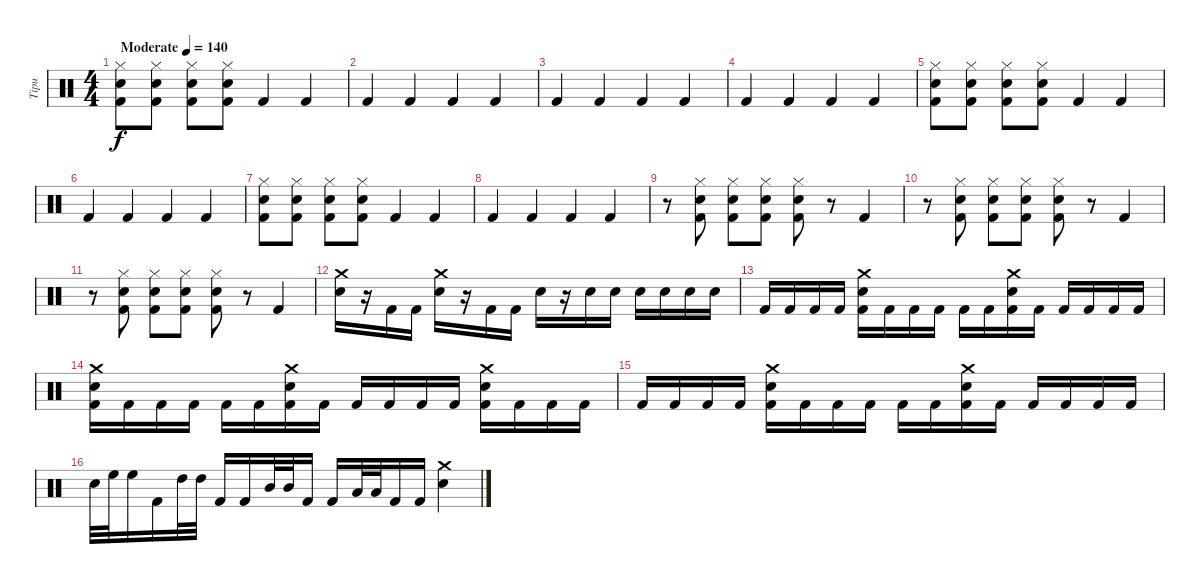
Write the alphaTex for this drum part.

\track ("Tipu" "Tipu") {instrument percussion}
\staff {score}
\articulation defaults
\ts (4 4)
\tempo (140 "Moderate")
\clef neutral
\ks c
("Kick (hit) 2" "Electric Snare (hit)" "Hi-Hat (closed)").8{dy f} ("Kick (hit) 2" "Electric Snare (hit)" "Hi-Hat (closed)").8 ("Kick (hit) 2" "Electric Snare (hit)" "Hi-Hat (closed)").8 ("Kick (hit) 2" "Electric Snare (hit)" "Hi-Hat (closed)").8 "Kick (hit) 2".4 "Kick (hit) 2".4 |
"Kick (hit) 2".4 "Kick (hit) 2".4 "Kick (hit) 2".4 "Kick (hit) 2".4 |
"Kick (hit) 2".4 "Kick (hit) 2".4 "Kick (hit) 2".4 "Kick (hit) 2".4 |
"Kick (hit) 2".4 "Kick (hit) 2".4 "Kick (hit) 2".4 "Kick (hit) 2".4 |
("Kick (hit) 2" "Electric Snare (hit)" "Hi-Hat (closed)").8 ("Kick (hit) 2" "Electric Snare (hit)" "Hi-Hat (closed)").8 ("Kick (hit) 2" "Electric Snare (hit)" "Hi-Hat (closed)").8 ("Kick (hit) 2" "Electric Snare (hit)" "Hi-Hat (closed)").8 "Kick (hit) 2".4 "Kick (hit) 2".4 |
"Kick (hit) 2".4 "Kick (hit) 2".4 "Kick (hit) 2".4 "Kick (hit) 2".4 |
("Kick (hit) 2" "Electric Snare (hit)" "Hi-Hat (closed)").8 ("Kick (hit) 2" "Electric Snare (hit)" "Hi-Hat (closed)").8 ("Kick (hit) 2" "Electric Snare (hit)" "Hi-Hat (closed)").8 ("Kick (hit) 2" "Electric Snare (hit)" "Hi-Hat (closed)").8 "Kick (hit) 2".4 "Kick (hit) 2".4 |
"Kick (hit) 2".4 "Kick (hit) 2".4 "Kick (hit) 2".4 "Kick (hit) 2".4 |
r.8 ("Kick (hit) 2" "Electric Snare (hit)" "Hi-Hat (closed)").8 ("Kick (hit) 2" "Electric Snare (hit)" "Hi-Hat (closed)").8 ("Kick (hit) 2" "Electric Snare (hit)" "Hi-Hat (closed)").8 ("Kick (hit) 2" "Electric Snare (hit)" "Hi-Hat (closed)").8 r.8 "Kick (hit) 2".4 |
r.8 ("Kick (hit) 2" "Electric Snare (hit)" "Hi-Hat (closed)").8 ("Kick (hit) 2" "Electric Snare (hit)" "Hi-Hat (closed)").8 ("Kick (hit) 2" "Electric Snare (hit)" "Hi-Hat (closed)").8 ("Kick (hit) 2" "Electric Snare (hit)" "Hi-Hat (closed)").8 r.8 "Kick (hit) 2".4 |
r.8 ("Kick (hit) 2" "Electric Snare (hit)" "Hi-Hat (closed)").8 ("Kick (hit) 2" "Electric Snare (hit)" "Hi-Hat (closed)").8 ("Kick (hit) 2" "Electric Snare (hit)" "Hi-Hat (closed)").8 ("Kick (hit) 2" "Electric Snare (hit)" "Hi-Hat (closed)").8 r.8 "Kick (hit) 2".4 |
("Snare (hit) 2" "Crash medium (hit)").16 r.16 "Kick (hit) 2".16 "Kick (hit) 2".16 ("Snare (hit) 2" "Crash medium (hit)").16 r.16 "Kick (hit) 2".16 "Kick (hit) 2".16 "Snare (hit) 2".16 r.16 "Snare (hit) 2".16 "Snare (hit) 2".16 "Snare (hit) 2".16 "Snare (hit) 2".16 "Snare (hit) 2".16 "Snare (hit) 2".16 |
"Kick (hit) 2".16 "Kick (hit) 2".16 "Kick (hit) 2".16 "Kick (hit) 2".16 ("Electric Snare (hit)" "Crash medium (hit)" "Kick (hit) 2").16 "Kick (hit) 2".16 "Kick (hit) 2".16 "Kick (hit) 2".16 "Kick (hit) 2".16 "Kick (hit) 2".16 ("Electric Snare (hit)" "Crash medium (hit)" "Kick (hit) 2").16 "Kick (hit) 2".16 "Kick (hit) 2".16 "Kick (hit) 2".16 "Kick (hit) 2".16 "Kick (hit) 2".16 |
("Electric Snare (hit)" "Crash medium (hit)" "Kick (hit) 2").16 "Kick (hit) 2".16 "Kick (hit) 2".16 "Kick (hit) 2".16 "Kick (hit) 2".16 "Kick (hit) 2".16 ("Electric Snare (hit)" "Crash medium (hit)" "Kick (hit) 2").16 "Kick (hit) 2".16 "Kick (hit) 2".16 "Kick (hit) 2".16 "Kick (hit) 2".16 "Kick (hit) 2".16 ("Electric Snare (hit)" "Crash medium (hit)" "Kick (hit) 2").16 "Kick (hit) 2".16 "Kick (hit) 2".16 "Kick (hit) 2".16 |
"Kick (hit) 2".16 "Kick (hit) 2".16 "Kick (hit) 2".16 "Kick (hit) 2".16 ("Electric Snare (hit)" "Crash medium (hit)" "Kick (hit) 2").16 "Kick (hit) 2".16 "Kick (hit) 2".16 "Kick (hit) 2".16 "Kick (hit) 2".16 "Kick (hit) 2".16 ("Electric Snare (hit)" "Crash medium (hit)" "Kick (hit) 2").16 "Kick (hit) 2".16 "Kick (hit) 2".16 "Kick (hit) 2".16 "Kick (hit) 2".16 "Kick (hit) 2".16 |
"Snare (hit) 2".32 "High Floor Tom (hit)".32 "High Floor Tom (hit)".16 "Kick (hit) 2".16 "High Tom (hit)".32 "High Tom (hit)".32 "Kick (hit) 2".16 "Kick (hit) 2".16 "Mid Tom (hit)".32 "Mid Tom (hit)".32 "Kick (hit) 2".16 "Kick (hit) 2".16 "Low Tom (hit)".32 "Low Tom (hit)".32 "Kick (hit) 2".16 "Kick (hit) 2".16 ("Electric Snare (hit)" "Crash medium (hit)").4
